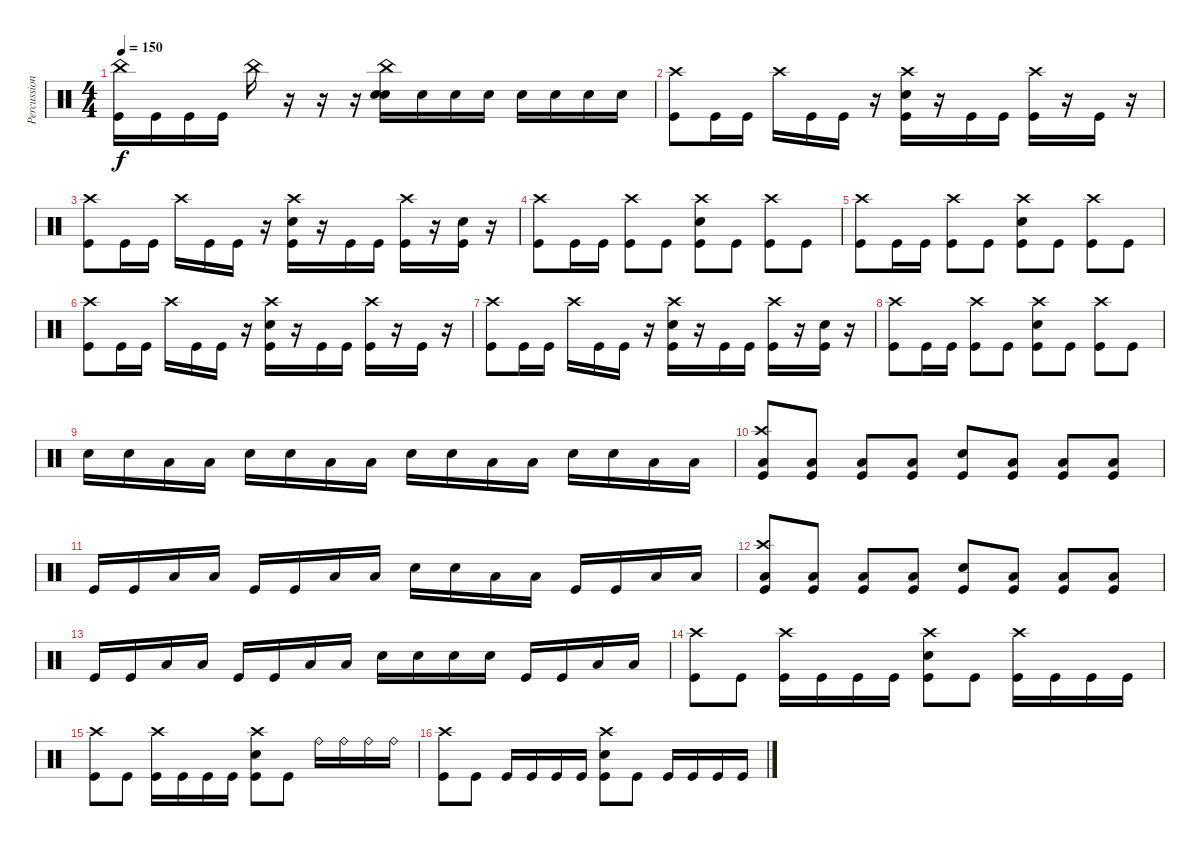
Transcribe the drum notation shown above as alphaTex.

\track ("Percussion" "Percussion") {instrument percussion}
\staff {score}
\articulation defaults
\ts (4 4)
\tempo 150
\clef neutral
\ks c
("China (hit)" "Kick (hit)").16{dy f} "Kick (hit)".16 "Kick (hit)".16 "Kick (hit)".16 "China (hit)".16 r.16 r.16 r.16 ("China (hit)" "Electric Snare (hit)" "Electric Snare (hit)").16 "Electric Snare (hit)".16 "Electric Snare (hit)".16 "Electric Snare (hit)".16 "Electric Snare (hit)".16 "Electric Snare (hit)".16 "Electric Snare (hit)".16 "Electric Snare (hit)".16 |
("Crash high (hit)" "Kick (hit)").8 "Kick (hit)".16 "Kick (hit)".16 "Crash high (hit)".16 "Kick (hit)".16 "Kick (hit)".16 r.16 ("Crash high (hit)" "Electric Snare (hit)" "Kick (hit)").16 r.16 "Kick (hit)".16 "Kick (hit)".16 ("Crash high (hit)" "Kick (hit)").16 r.16 "Kick (hit)".16 r.16 |
("Crash high (hit)" "Kick (hit)").8 "Kick (hit)".16 "Kick (hit)".16 "Crash high (hit)".16 "Kick (hit)".16 "Kick (hit)".16 r.16 ("Crash high (hit)" "Electric Snare (hit)" "Kick (hit)").16 r.16 "Kick (hit)".16 "Kick (hit)".16 ("Crash high (hit)" "Kick (hit)").16 r.16 ("Electric Snare (hit)" "Kick (hit)").16 r.16 |
("Crash high (hit)" "Kick (hit)").8 "Kick (hit)".16 "Kick (hit)".16 ("Crash high (hit)" "Kick (hit)").8 "Kick (hit)".8 ("Crash high (hit)" "Electric Snare (hit)" "Kick (hit)").8 "Kick (hit)".8 ("Crash high (hit)" "Kick (hit)").8 "Kick (hit)".8 |
("Crash high (hit)" "Kick (hit)").8 "Kick (hit)".16 "Kick (hit)".16 ("Crash high (hit)" "Kick (hit)").8 "Kick (hit)".8 ("Crash high (hit)" "Electric Snare (hit)" "Kick (hit)").8 "Kick (hit)".8 ("Crash high (hit)" "Kick (hit)").8 "Kick (hit)".8 |
("Crash high (hit)" "Kick (hit)").8 "Kick (hit)".16 "Kick (hit)".16 "Crash high (hit)".16 "Kick (hit)".16 "Kick (hit)".16 r.16 ("Crash high (hit)" "Electric Snare (hit)" "Kick (hit)").16 r.16 "Kick (hit)".16 "Kick (hit)".16 ("Crash high (hit)" "Kick (hit)").16 r.16 "Kick (hit)".16 r.16 |
("Crash high (hit)" "Kick (hit)").8 "Kick (hit)".16 "Kick (hit)".16 "Crash high (hit)".16 "Kick (hit)".16 "Kick (hit)".16 r.16 ("Crash high (hit)" "Electric Snare (hit)" "Kick (hit)").16 r.16 "Kick (hit)".16 "Kick (hit)".16 ("Crash high (hit)" "Kick (hit)").16 r.16 ("Electric Snare (hit)" "Kick (hit)").16 r.16 |
("Crash high (hit)" "Kick (hit)").8 "Kick (hit)".16 "Kick (hit)".16 ("Crash high (hit)" "Kick (hit)").8 "Kick (hit)".8 ("Crash high (hit)" "Electric Snare (hit)" "Kick (hit)").8 "Kick (hit)".8 ("Crash high (hit)" "Kick (hit)").8 "Kick (hit)".8 |
"Electric Snare (hit)".16 "Electric Snare (hit)".16 "Low Floor Tom (hit)".16 "Low Floor Tom (hit)".16 "Electric Snare (hit)".16 "Electric Snare (hit)".16 "Low Tom (hit)".16 "Low Tom (hit)".16 "Electric Snare (hit)".16 "Electric Snare (hit)".16 "Low Tom (hit)".16 "Low Tom (hit)".16 "Electric Snare (hit)".16 "Electric Snare (hit)".16 "Low Tom (hit)".16 "Low Tom (hit)".16 |
("Low Floor Tom (hit)" "Kick (hit)" "Crash high (hit)").8 ("Low Floor Tom (hit)" "Kick (hit)").8 ("Low Floor Tom (hit)" "Kick (hit)").8 ("Low Floor Tom (hit)" "Kick (hit)").8 ("Electric Snare (hit)" "Kick (hit)").8 ("Low Floor Tom (hit)" "Kick (hit)").8 ("Low Floor Tom (hit)" "Kick (hit)").8 ("Low Floor Tom (hit)" "Kick (hit)").8 |
"Kick (hit)".16 "Kick (hit)".16 "Low Floor Tom (hit)".16 "Low Floor Tom (hit)".16 "Kick (hit)".16 "Kick (hit)".16 "Low Tom (hit)".16 "Low Tom (hit)".16 "Electric Snare (hit)".16 "Electric Snare (hit)".16 "Low Tom (hit)".16 "Low Tom (hit)".16 "Kick (hit)".16 "Kick (hit)".16 "Low Tom (hit)".16 "Low Tom (hit)".16 |
("Low Floor Tom (hit)" "Kick (hit)" "Crash high (hit)").8 ("Low Floor Tom (hit)" "Kick (hit)").8 ("Low Floor Tom (hit)" "Kick (hit)").8 ("Low Floor Tom (hit)" "Kick (hit)").8 ("Electric Snare (hit)" "Kick (hit)").8 ("Low Floor Tom (hit)" "Kick (hit)").8 ("Low Floor Tom (hit)" "Kick (hit)").8 ("Low Floor Tom (hit)" "Kick (hit)").8 |
"Kick (hit)".16 "Kick (hit)".16 "Low Floor Tom (hit)".16 "Low Floor Tom (hit)".16 "Kick (hit)".16 "Kick (hit)".16 "Low Tom (hit)".16 "Low Tom (hit)".16 "Electric Snare (hit)".16 "Electric Snare (hit)".16 "Electric Snare (hit)".16 "Electric Snare (hit)".16 "Kick (hit)".16 "Kick (hit)".16 "Low Tom (hit)".16 "Low Tom (hit)".16 |
("Crash high (hit)" "Kick (hit)").8 "Kick (hit)".8 ("Crash high (hit)" "Kick (hit)").16 "Kick (hit)".16 "Kick (hit)".16 "Kick (hit)".16 ("Crash high (hit)" "Electric Snare (hit)" "Kick (hit)").8 "Kick (hit)".8 ("Crash high (hit)" "Kick (hit)").16 "Kick (hit)".16 "Kick (hit)".16 "Kick (hit)".16 |
("Crash high (hit)" "Kick (hit)").8 "Kick (hit)".8 ("Crash high (hit)" "Kick (hit)").16 "Kick (hit)".16 "Kick (hit)".16 "Kick (hit)".16 ("Crash high (hit)" "Electric Snare (hit)" "Kick (hit)").8 "Kick (hit)".8 "Ride (bell)".16 "Ride (bell)".16 "Ride (bell)".16 "Ride (bell)".16 |
("Crash high (hit)" "Kick (hit)").8 "Kick (hit)".8 "Kick (hit)".16 "Kick (hit)".16 "Kick (hit)".16 "Kick (hit)".16 ("Crash high (hit)" "Electric Snare (hit)" "Kick (hit)").8 "Kick (hit)".8 "Kick (hit)".16 "Kick (hit)".16 "Kick (hit)".16 "Kick (hit)".16
